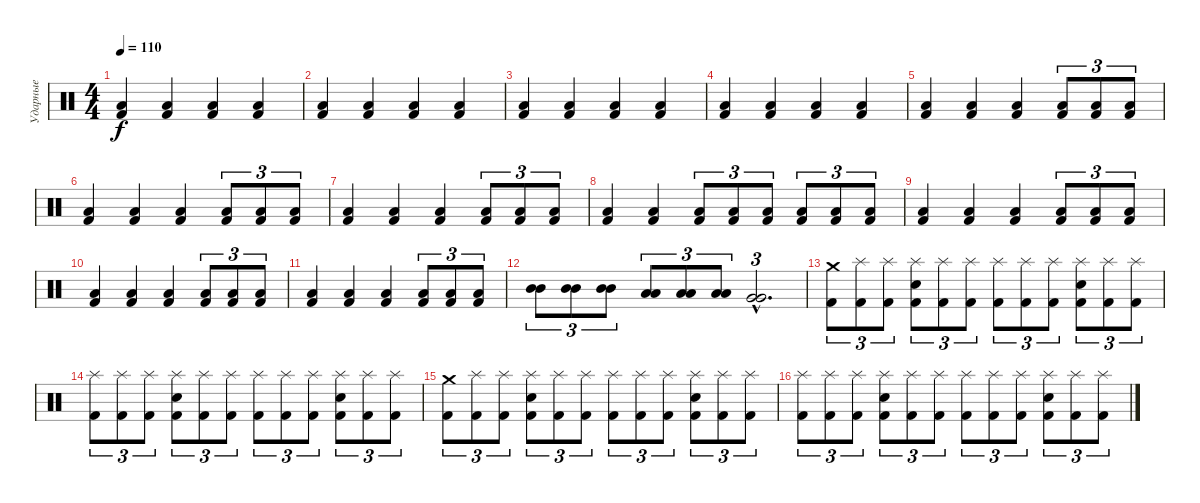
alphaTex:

\track ("Ударные" "Ударные") {instrument percussion}
\staff {score}
\articulation defaults
\ts (4 4)
\tempo 110
\clef neutral
\ks c
("Kick (hit) 2" "Low Tom (hit)").4{dy f} ("Kick (hit) 2" "Low Tom (hit)").4 ("Kick (hit) 2" "Low Tom (hit)").4 ("Kick (hit) 2" "Low Tom (hit)").4 |
("Kick (hit) 2" "Low Tom (hit)").4 ("Kick (hit) 2" "Low Tom (hit)").4 ("Kick (hit) 2" "Low Tom (hit)").4 ("Kick (hit) 2" "Low Tom (hit)").4 |
("Kick (hit) 2" "Low Tom (hit)").4 ("Kick (hit) 2" "Low Tom (hit)").4 ("Kick (hit) 2" "Low Tom (hit)").4 ("Kick (hit) 2" "Low Tom (hit)").4 |
("Kick (hit) 2" "Low Tom (hit)").4 ("Kick (hit) 2" "Low Tom (hit)").4 ("Kick (hit) 2" "Low Tom (hit)").4 ("Kick (hit) 2" "Low Tom (hit)").4 |
("Low Tom (hit)" "Kick (hit) 2").4 ("Low Tom (hit)" "Kick (hit) 2").4 ("Low Tom (hit)" "Kick (hit) 2").4 ("Low Tom (hit)" "Kick (hit) 2").8{tu (3 2)} ("Low Tom (hit)" "Kick (hit) 2").8{tu (3 2)} ("Low Tom (hit)" "Kick (hit) 2").8{tu (3 2)} |
("Low Tom (hit)" "Kick (hit) 2").4 ("Low Tom (hit)" "Kick (hit) 2").4 ("Low Tom (hit)" "Kick (hit) 2").4 ("Low Tom (hit)" "Kick (hit) 2").8{tu (3 2)} ("Low Tom (hit)" "Kick (hit) 2").8{tu (3 2)} ("Low Tom (hit)" "Kick (hit) 2").8{tu (3 2)} |
("Low Tom (hit)" "Kick (hit) 2").4 ("Low Tom (hit)" "Kick (hit) 2").4 ("Low Tom (hit)" "Kick (hit) 2").4 ("Low Tom (hit)" "Kick (hit) 2").8{tu (3 2)} ("Low Tom (hit)" "Kick (hit) 2").8{tu (3 2)} ("Low Tom (hit)" "Kick (hit) 2").8{tu (3 2)} |
("Low Tom (hit)" "Kick (hit) 2").4 ("Low Tom (hit)" "Kick (hit) 2").4 ("Low Tom (hit)" "Kick (hit) 2").8{tu (3 2)} ("Low Tom (hit)" "Kick (hit) 2").8{tu (3 2)} ("Low Tom (hit)" "Kick (hit) 2").8{tu (3 2)} ("Low Tom (hit)" "Kick (hit) 2").8{tu (3 2)} ("Low Tom (hit)" "Kick (hit) 2").8{tu (3 2)} ("Low Tom (hit)" "Kick (hit) 2").8{tu (3 2)} |
("Low Tom (hit)" "Kick (hit) 2").4 ("Low Tom (hit)" "Kick (hit) 2").4 ("Low Tom (hit)" "Kick (hit) 2").4 ("Low Tom (hit)" "Kick (hit) 2").8{tu (3 2)} ("Low Tom (hit)" "Kick (hit) 2").8{tu (3 2)} ("Low Tom (hit)" "Kick (hit) 2").8{tu (3 2)} |
("Low Tom (hit)" "Kick (hit) 2").4 ("Low Tom (hit)" "Kick (hit) 2").4 ("Low Tom (hit)" "Kick (hit) 2").4 ("Low Tom (hit)" "Kick (hit) 2").8{tu (3 2)} ("Low Tom (hit)" "Kick (hit) 2").8{tu (3 2)} ("Low Tom (hit)" "Kick (hit) 2").8{tu (3 2)} |
("Low Tom (hit)" "Kick (hit) 2").4 ("Low Tom (hit)" "Kick (hit) 2").4 ("Low Tom (hit)" "Kick (hit) 2").4 ("Low Tom (hit)" "Kick (hit) 2").8{tu (3 2)} ("Low Tom (hit)" "Kick (hit) 2").8{tu (3 2)} ("Low Tom (hit)" "Kick (hit) 2").8{tu (3 2)} |
("Mid Tom (hit)" "Mid Tom (hit)").8{tu (3 2)} ("Mid Tom (hit)" "Mid Tom (hit)").8{tu (3 2)} ("Mid Tom (hit)" "Mid Tom (hit)").8{tu (3 2)} ("Low Tom (hit)" "Low Tom (hit)").8{tu (3 2)} ("Low Tom (hit)" "Low Tom (hit)").8{tu (3 2)} ("Low Tom (hit)" "Low Tom (hit)").8{tu (3 2)} ("Very Low Tom (hit)"{hac} "Very Low Tom (hit)"{hac}).2{d tu (3 2)} |
("Crash medium (hit)" "Kick (hit) 2").8{tu (3 2)} ("Splash (hit)" "Kick (hit) 2").8{tu (3 2)} ("Splash (hit)" "Kick (hit) 2").8{tu (3 2)} ("Splash (hit)" "Electric Snare (hit)" "Kick (hit) 2").8{tu (3 2)} ("Splash (hit)" "Kick (hit) 2").8{tu (3 2)} ("Splash (hit)" "Kick (hit) 2").8{tu (3 2)} ("Splash (hit)" "Kick (hit) 2").8{tu (3 2)} ("Splash (hit)" "Kick (hit) 2").8{tu (3 2)} ("Splash (hit)" "Kick (hit) 2").8{tu (3 2)} ("Splash (hit)" "Electric Snare (hit)" "Kick (hit) 2").8{tu (3 2)} ("Splash (hit)" "Kick (hit) 2").8{tu (3 2)} ("Splash (hit)" "Kick (hit) 2").8{tu (3 2)} |
("Splash (hit)" "Kick (hit) 2").8{tu (3 2)} ("Splash (hit)" "Kick (hit) 2").8{tu (3 2)} ("Splash (hit)" "Kick (hit) 2").8{tu (3 2)} ("Splash (hit)" "Electric Snare (hit)" "Kick (hit) 2").8{tu (3 2)} ("Splash (hit)" "Kick (hit) 2").8{tu (3 2)} ("Splash (hit)" "Kick (hit) 2").8{tu (3 2)} ("Splash (hit)" "Kick (hit) 2").8{tu (3 2)} ("Splash (hit)" "Kick (hit) 2").8{tu (3 2)} ("Splash (hit)" "Kick (hit) 2").8{tu (3 2)} ("Splash (hit)" "Electric Snare (hit)" "Kick (hit) 2").8{tu (3 2)} ("Splash (hit)" "Kick (hit) 2").8{tu (3 2)} ("Splash (hit)" "Kick (hit) 2").8{tu (3 2)} |
("Crash medium (hit)" "Kick (hit) 2").8{tu (3 2)} ("Splash (hit)" "Kick (hit) 2").8{tu (3 2)} ("Splash (hit)" "Kick (hit) 2").8{tu (3 2)} ("Splash (hit)" "Electric Snare (hit)" "Kick (hit) 2").8{tu (3 2)} ("Splash (hit)" "Kick (hit) 2").8{tu (3 2)} ("Splash (hit)" "Kick (hit) 2").8{tu (3 2)} ("Splash (hit)" "Kick (hit) 2").8{tu (3 2)} ("Splash (hit)" "Kick (hit) 2").8{tu (3 2)} ("Splash (hit)" "Kick (hit) 2").8{tu (3 2)} ("Splash (hit)" "Electric Snare (hit)" "Kick (hit) 2").8{tu (3 2)} ("Splash (hit)" "Kick (hit) 2").8{tu (3 2)} ("Splash (hit)" "Kick (hit) 2").8{tu (3 2)} |
("Splash (hit)" "Kick (hit) 2").8{tu (3 2)} ("Splash (hit)" "Kick (hit) 2").8{tu (3 2)} ("Splash (hit)" "Kick (hit) 2").8{tu (3 2)} ("Splash (hit)" "Electric Snare (hit)" "Kick (hit) 2").8{tu (3 2)} ("Splash (hit)" "Kick (hit) 2").8{tu (3 2)} ("Splash (hit)" "Kick (hit) 2").8{tu (3 2)} ("Splash (hit)" "Kick (hit) 2").8{tu (3 2)} ("Splash (hit)" "Kick (hit) 2").8{tu (3 2)} ("Splash (hit)" "Kick (hit) 2").8{tu (3 2)} ("Splash (hit)" "Electric Snare (hit)" "Kick (hit) 2").8{tu (3 2)} ("Splash (hit)" "Kick (hit) 2").8{tu (3 2)} ("Splash (hit)" "Kick (hit) 2").8{tu (3 2)}
